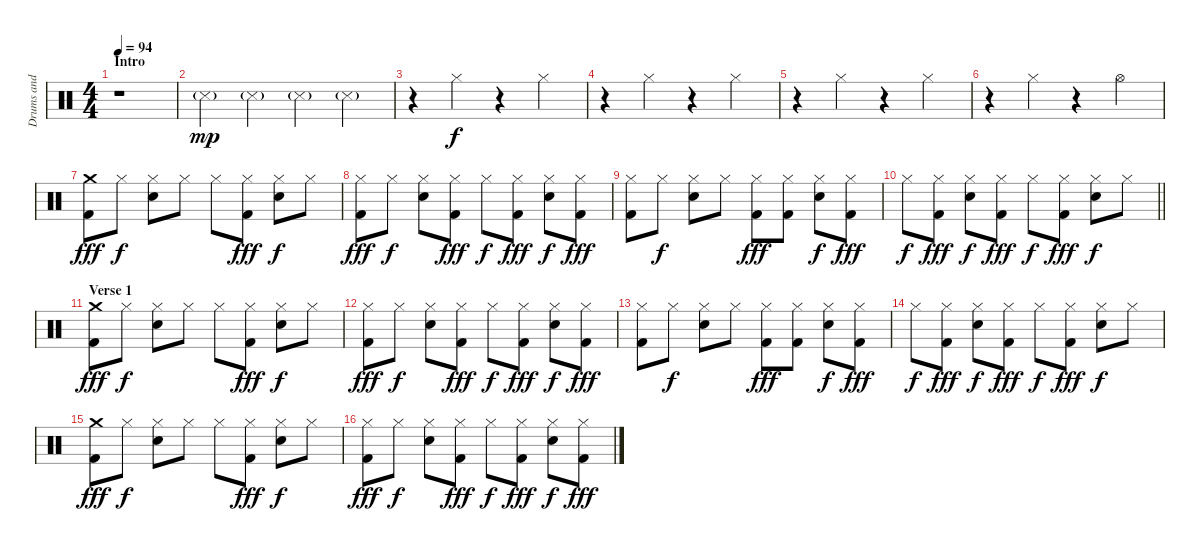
\track ("Drums and Percussion" "Drums and ") {instrument percussion}
\staff {score}
\articulation defaults
\ts (4 4)
\section ("" "Intro")
\tempo 94
\clef neutral
\ks c
r.1{dy mp} |
"Snare (side stick) 3"{g}.4 "Snare (side stick) 3"{g}.4 "Snare (side stick) 3"{g}.4 "Snare (side stick) 3"{g}.4 |
r.4 "Hi-Hat (closed)".4{dy f} r.4 "Hi-Hat (closed)".4 |
r.4 "Hi-Hat (closed)".4 r.4 "Hi-Hat (closed)".4 |
r.4 "Hi-Hat (closed)".4 r.4 "Hi-Hat (closed)".4 |
r.4 "Hi-Hat (closed)".4 r.4 "Hi-Hat (open)".4 |
("Crash medium (hit)" "Kick (hit) 2").8{dy fff} "Hi-Hat (closed)".8{dy f} ("Hi-Hat (closed)" "Snare (hit) 2").8 "Hi-Hat (closed)".8 "Hi-Hat (closed)".8 ("Hi-Hat (closed)" "Kick (hit) 2").8{dy fff} ("Hi-Hat (closed)" "Snare (hit) 2").8{dy f} "Hi-Hat (closed)".8 |
("Hi-Hat (closed)" "Kick (hit) 2").8{dy fff} "Hi-Hat (closed)".8{dy f} ("Hi-Hat (closed)" "Snare (hit) 2").8 ("Hi-Hat (closed)" "Kick (hit) 2").8{dy fff} "Hi-Hat (closed)".8{dy f} ("Hi-Hat (closed)" "Kick (hit) 2").8{dy fff} ("Hi-Hat (closed)" "Snare (hit) 2").8{dy f} ("Hi-Hat (closed)" "Kick (hit) 2").8{dy fff} |
("Hi-Hat (closed)" "Kick (hit) 2").8 "Hi-Hat (closed)".8{dy f} ("Hi-Hat (closed)" "Snare (hit) 2").8 "Hi-Hat (closed)".8 ("Hi-Hat (closed)" "Kick (hit) 2").8{dy fff} ("Hi-Hat (closed)" "Kick (hit) 2").8 ("Hi-Hat (closed)" "Snare (hit) 2").8{dy f} ("Hi-Hat (closed)" "Kick (hit) 2").8{dy fff} |
\barLineRight lightlight "Hi-Hat (closed)".8{dy f}
("Hi-Hat (closed)" "Kick (hit) 2").8{dy fff} ("Hi-Hat (closed)" "Snare (hit) 2").8{dy f} ("Hi-Hat (closed)" "Kick (hit) 2").8{dy fff} "Hi-Hat (closed)".8{dy f} ("Hi-Hat (closed)" "Kick (hit) 2").8{dy fff} ("Hi-Hat (closed)" "Snare (hit) 2").8{dy f} "Hi-Hat (closed)".8 |
\section ("" "Verse 1")
("Crash medium (hit)" "Kick (hit) 2").8{dy fff} "Hi-Hat (closed)".8{dy f} ("Hi-Hat (closed)" "Snare (hit) 2").8 "Hi-Hat (closed)".8 "Hi-Hat (closed)".8 ("Hi-Hat (closed)" "Kick (hit) 2").8{dy fff} ("Hi-Hat (closed)" "Snare (hit) 2").8{dy f} "Hi-Hat (closed)".8 |
("Hi-Hat (closed)" "Kick (hit) 2").8{dy fff} "Hi-Hat (closed)".8{dy f} ("Hi-Hat (closed)" "Snare (hit) 2").8 ("Hi-Hat (closed)" "Kick (hit) 2").8{dy fff} "Hi-Hat (closed)".8{dy f} ("Hi-Hat (closed)" "Kick (hit) 2").8{dy fff} ("Hi-Hat (closed)" "Snare (hit) 2").8{dy f} ("Hi-Hat (closed)" "Kick (hit) 2").8{dy fff} |
("Hi-Hat (closed)" "Kick (hit) 2").8 "Hi-Hat (closed)".8{dy f} ("Hi-Hat (closed)" "Snare (hit) 2").8 "Hi-Hat (closed)".8 ("Hi-Hat (closed)" "Kick (hit) 2").8{dy fff} ("Hi-Hat (closed)" "Kick (hit) 2").8 ("Hi-Hat (closed)" "Snare (hit) 2").8{dy f} ("Hi-Hat (closed)" "Kick (hit) 2").8{dy fff} |
"Hi-Hat (closed)".8{dy f} ("Hi-Hat (closed)" "Kick (hit) 2").8{dy fff} ("Hi-Hat (closed)" "Snare (hit) 2").8{dy f} ("Hi-Hat (closed)" "Kick (hit) 2").8{dy fff} "Hi-Hat (closed)".8{dy f} ("Hi-Hat (closed)" "Kick (hit) 2").8{dy fff} ("Hi-Hat (closed)" "Snare (hit) 2").8{dy f} "Hi-Hat (closed)".8 |
("Crash medium (hit)" "Kick (hit) 2").8{dy fff} "Hi-Hat (closed)".8{dy f} ("Hi-Hat (closed)" "Snare (hit) 2").8 "Hi-Hat (closed)".8 "Hi-Hat (closed)".8 ("Hi-Hat (closed)" "Kick (hit) 2").8{dy fff} ("Hi-Hat (closed)" "Snare (hit) 2").8{dy f} "Hi-Hat (closed)".8 |
("Hi-Hat (closed)" "Kick (hit) 2").8{dy fff} "Hi-Hat (closed)".8{dy f} ("Hi-Hat (closed)" "Snare (hit) 2").8 ("Hi-Hat (closed)" "Kick (hit) 2").8{dy fff} "Hi-Hat (closed)".8{dy f} ("Hi-Hat (closed)" "Kick (hit) 2").8{dy fff} ("Hi-Hat (closed)" "Snare (hit) 2").8{dy f} ("Hi-Hat (closed)" "Kick (hit) 2").8{dy fff}
